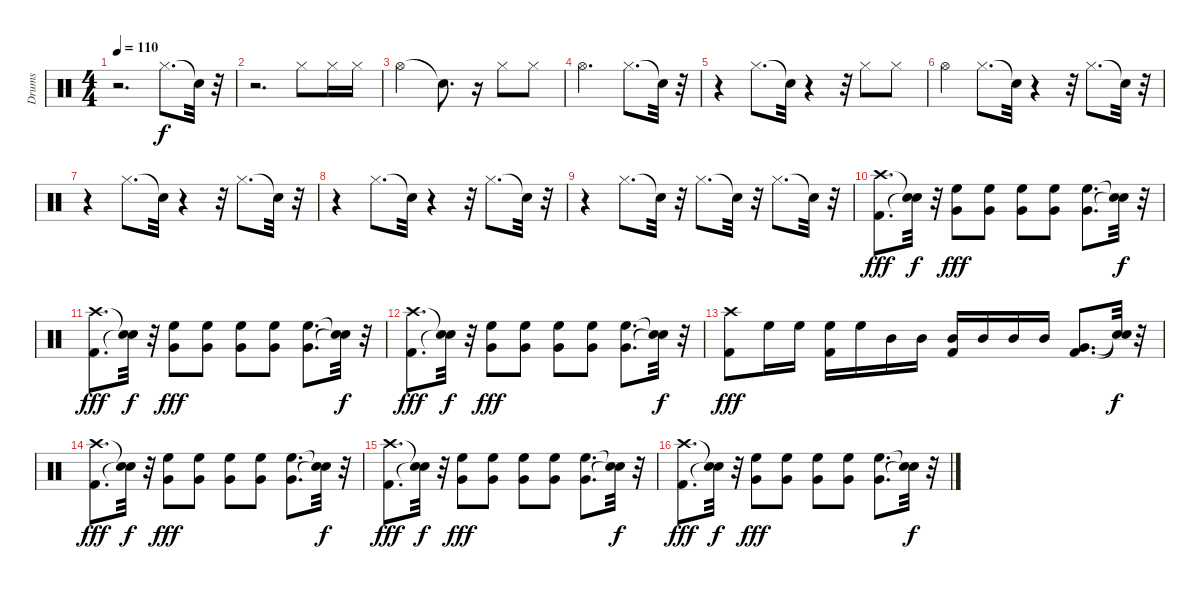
\track ("Drums" "Drums") {instrument percussion}
\staff {score}
\articulation defaults
\ts (4 4)
\tempo 110
\clef neutral
\ks c
r.2{d dy f} "Hi-Hat (closed)".8{d} "Snare (hit)"{t}.32 r.32 |
r.2{d} "Hi-Hat (closed)".8 "Hi-Hat (closed)".16 "Hi-Hat (closed)".16 |
"Hi-Hat (open)".2 "Snare (hit)"{t}.8{d} r.16 "Hi-Hat (closed)".8 "Hi-Hat (closed)".8 |
"Hi-Hat (open)".2{d} "Hi-Hat (closed)".8{d} "Snare (hit)"{t}.32 r.32 |
r.4 "Hi-Hat (closed)".8{d} "Snare (hit)"{t}.32 r.4 r.32 "Hi-Hat (closed)".8 "Hi-Hat (closed)".8 |
"Hi-Hat (open)".4 "Hi-Hat (closed)".8{d} "Snare (hit)"{t}.32 r.4 r.32 "Hi-Hat (closed)".8{d} "Snare (hit)"{t}.32 r.32 |
r.4 "Hi-Hat (closed)".8{d} "Snare (hit)"{t}.32 r.4 r.32 "Hi-Hat (closed)".8{d} "Snare (hit)"{t}.32 r.32 |
r.4 "Hi-Hat (closed)".8{d} "Snare (hit)"{t}.32 r.4 r.32 "Hi-Hat (closed)".8{d} "Snare (hit)"{t}.32 r.32 |
r.4 "Hi-Hat (closed)".8{d} "Snare (hit)"{t}.32 r.32 "Hi-Hat (closed)".8{d} "Snare (hit)"{t}.32 r.32 "Hi-Hat (closed)".8{d} "Snare (hit)"{t}.32 r.32 |
("Kick (hit) 2" "Crash high (hit)").8{d dy fff} ("Snare (hit)"{t} "Snare (hit)"{t}).32{dy f} r.32 ("Very Low Tom (hit)" "High Floor Tom (hit)").8{dy fff} ("Very Low Tom (hit)" "High Floor Tom (hit)").8 ("Very Low Tom (hit)" "High Floor Tom (hit)").8 ("Very Low Tom (hit)" "High Floor Tom (hit)").8 ("Very Low Tom (hit)" "High Floor Tom (hit)").8{d} ("Snare (hit)"{t} "Snare (hit)"{t}).32{dy f} r.32 |
("Kick (hit) 2" "Crash high (hit)").8{d dy fff} ("Snare (hit)"{t} "Snare (hit)"{t}).32{dy f} r.32 ("Very Low Tom (hit)" "High Floor Tom (hit)").8{dy fff} ("Very Low Tom (hit)" "High Floor Tom (hit)").8 ("Very Low Tom (hit)" "High Floor Tom (hit)").8 ("Very Low Tom (hit)" "High Floor Tom (hit)").8 ("Very Low Tom (hit)" "High Floor Tom (hit)").8{d} ("Snare (hit)"{t} "Snare (hit)"{t}).32{dy f} r.32 |
("Kick (hit) 2" "Crash high (hit)").8{d dy fff} ("Snare (hit)"{t} "Snare (hit)"{t}).32{dy f} r.32 ("Very Low Tom (hit)" "High Floor Tom (hit)").8{dy fff} ("Very Low Tom (hit)" "High Floor Tom (hit)").8 ("Very Low Tom (hit)" "High Floor Tom (hit)").8 ("Very Low Tom (hit)" "High Floor Tom (hit)").8 ("Very Low Tom (hit)" "High Floor Tom (hit)").8{d} ("Snare (hit)"{t} "Snare (hit)"{t}).32{dy f} r.32 |
("Kick (hit) 2" "Crash high (hit)").8{dy fff} "High Floor Tom (hit)".16 "High Floor Tom (hit)".16 ("Kick (hit) 2" "High Floor Tom (hit)").16 "High Floor Tom (hit)".16 "Mid Tom (hit)".16 "Mid Tom (hit)".16 ("Kick (hit) 2" "Mid Tom (hit)").16 "Mid Tom (hit)".16 "Mid Tom (hit)".16 "Mid Tom (hit)".16 ("Kick (hit) 2" "Very Low Tom (hit)").8{d} ("Snare (hit)"{t} "Snare (hit)"{t}).32{dy f} r.32 |
("Kick (hit) 2" "Crash high (hit)").8{d dy fff} ("Snare (hit)"{t} "Snare (hit)"{t}).32{dy f} r.32 ("Very Low Tom (hit)" "High Floor Tom (hit)").8{dy fff} ("Very Low Tom (hit)" "High Floor Tom (hit)").8 ("Very Low Tom (hit)" "High Floor Tom (hit)").8 ("Very Low Tom (hit)" "High Floor Tom (hit)").8 ("Very Low Tom (hit)" "High Floor Tom (hit)").8{d} ("Snare (hit)"{t} "Snare (hit)"{t}).32{dy f} r.32 |
("Kick (hit) 2" "Crash high (hit)").8{d dy fff} ("Snare (hit)"{t} "Snare (hit)"{t}).32{dy f} r.32 ("Very Low Tom (hit)" "High Floor Tom (hit)").8{dy fff} ("Very Low Tom (hit)" "High Floor Tom (hit)").8 ("Very Low Tom (hit)" "High Floor Tom (hit)").8 ("Very Low Tom (hit)" "High Floor Tom (hit)").8 ("Very Low Tom (hit)" "High Floor Tom (hit)").8{d} ("Snare (hit)"{t} "Snare (hit)"{t}).32{dy f} r.32 |
("Kick (hit) 2" "Crash high (hit)").8{d dy fff} ("Snare (hit)"{t} "Snare (hit)"{t}).32{dy f} r.32 ("Very Low Tom (hit)" "High Floor Tom (hit)").8{dy fff} ("Very Low Tom (hit)" "High Floor Tom (hit)").8 ("Very Low Tom (hit)" "High Floor Tom (hit)").8 ("Very Low Tom (hit)" "High Floor Tom (hit)").8 ("Very Low Tom (hit)" "High Floor Tom (hit)").8{d} ("Snare (hit)"{t} "Snare (hit)"{t}).32{dy f} r.32
